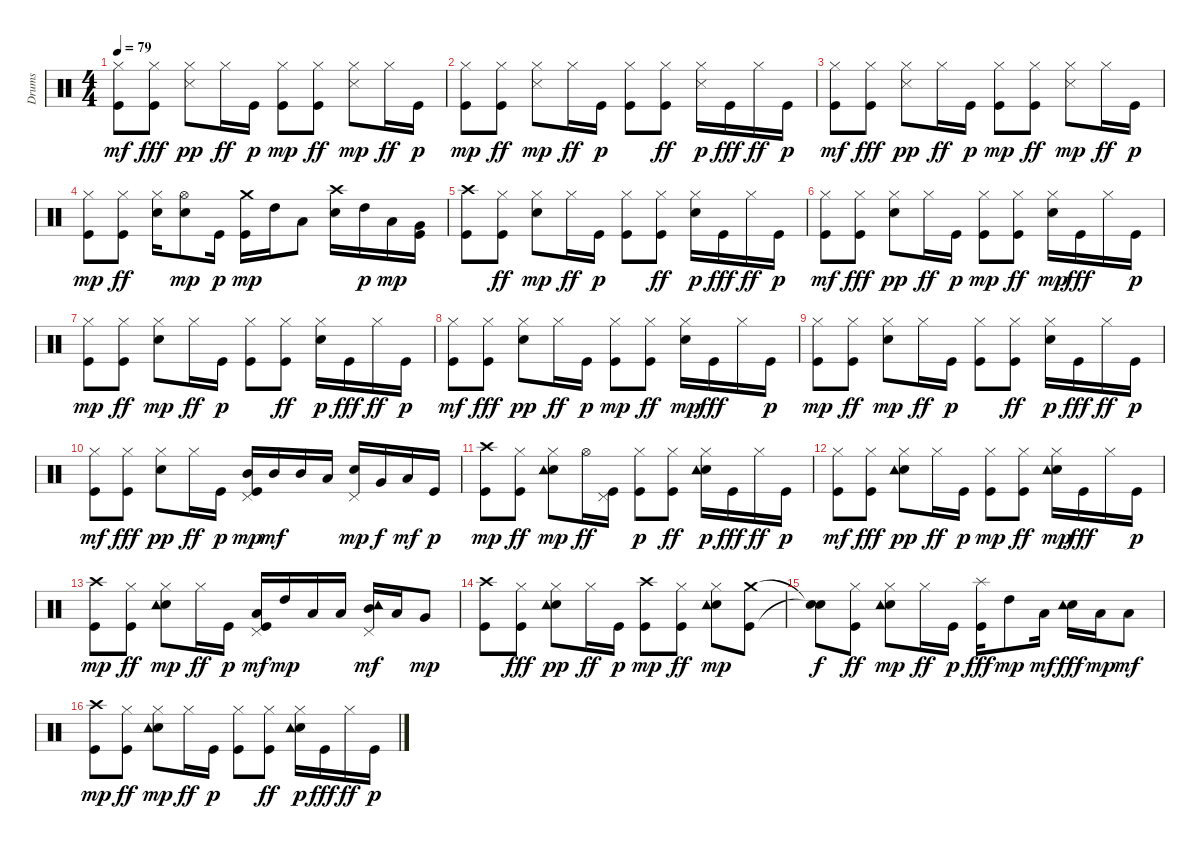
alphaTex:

\track ("Drums" "Drums") {instrument percussion}
\staff {score}
\articulation defaults
\ts (4 4)
\tempo 79
\clef neutral
\ks c
("Kick (hit)" "Hi-Hat (closed)").8{dy mf} ("Kick (hit)" "Hi-Hat (closed)").8{dy fff} ("Snare (side stick) 3" "Hi-Hat (closed)").8{dy pp} "Hi-Hat (closed)".16{dy ff} "Kick (hit)".16{dy p} ("Kick (hit)" "Hi-Hat (closed)").8{dy mp} ("Kick (hit)" "Hi-Hat (closed)").8{dy ff} ("Snare (side stick) 3" "Hi-Hat (closed)").8{dy mp} "Hi-Hat (closed)".16{dy ff} "Kick (hit)".16{dy p} |
("Kick (hit)" "Hi-Hat (closed)").8{dy mp} ("Kick (hit)" "Hi-Hat (closed)").8{dy ff} ("Snare (side stick) 3" "Hi-Hat (closed)").8{dy mp} "Hi-Hat (closed)".16{dy ff} "Kick (hit)".16{dy p} ("Kick (hit)" "Hi-Hat (closed)").8 ("Kick (hit)" "Hi-Hat (closed)").8{dy ff} ("Snare (side stick) 3" "Hi-Hat (closed)").16{dy p} "Kick (hit)".16{dy fff} "Hi-Hat (closed)".16{dy ff} "Kick (hit)".16{dy p} |
("Kick (hit)" "Hi-Hat (closed)").8{dy mf} ("Kick (hit)" "Hi-Hat (closed)").8{dy fff} ("Snare (side stick) 3" "Hi-Hat (closed)").8{dy pp} "Hi-Hat (closed)".16{dy ff} "Kick (hit)".16{dy p} ("Kick (hit)" "Hi-Hat (closed)").8{dy mp} ("Kick (hit)" "Hi-Hat (closed)").8{dy ff} ("Snare (side stick) 3" "Hi-Hat (closed)").8{dy mp} "Hi-Hat (closed)".16{dy ff} "Kick (hit)".16{dy p} |
("Kick (hit)" "Hi-Hat (closed)").8{dy mp} ("Kick (hit)" "Hi-Hat (closed)").8{dy ff} ("Electric Snare (hit)" "Hi-Hat (closed)").16 ("Electric Snare (hit)" "Hi-Hat (open)").8{dy mp} "Kick (hit)".16{dy p} ("Kick (hit)" "Crash medium (hit)").16{dy mp} "High Tom (hit)".16 "Low Tom (hit)".8 ("Electric Snare (hit)" "Crash high (hit)").16 "High Tom (hit)".16{dy p} "Low Tom (hit)".16{dy mp} ("Kick (hit)" "Very Low Tom (hit)").16 |
("Kick (hit)" "Crash high (hit)").8 ("Kick (hit)" "Hi-Hat (closed)").8{dy ff} ("Electric Snare (hit)" "Hi-Hat (closed)").8{dy mp} "Hi-Hat (closed)".16{dy ff} "Kick (hit)".16{dy p} ("Kick (hit)" "Hi-Hat (closed)").8 ("Kick (hit)" "Hi-Hat (closed)").8{dy ff} ("Electric Snare (hit)" "Hi-Hat (closed)").16{dy p} "Kick (hit)".16{dy fff} "Hi-Hat (closed)".16{dy ff} "Kick (hit)".16{dy p} |
("Kick (hit)" "Hi-Hat (closed)").8{dy mf} ("Kick (hit)" "Hi-Hat (closed)").8{dy fff} ("Electric Snare (hit)" "Hi-Hat (closed)").8{dy pp} "Hi-Hat (closed)".16{dy ff} "Kick (hit)".16{dy p} ("Kick (hit)" "Hi-Hat (closed)").8{dy mp} ("Kick (hit)" "Hi-Hat (closed)").8{dy ff} ("Electric Snare (hit)" "Hi-Hat (closed)").16{dy mp} "Kick (hit)".16{dy fff} "Hi-Hat (closed)".16 "Kick (hit)".16{dy p} |
("Kick (hit)" "Hi-Hat (closed)").8{dy mp} ("Kick (hit)" "Hi-Hat (closed)").8{dy ff} ("Electric Snare (hit)" "Hi-Hat (closed)").8{dy mp} "Hi-Hat (closed)".16{dy ff} "Kick (hit)".16{dy p} ("Kick (hit)" "Hi-Hat (closed)").8 ("Kick (hit)" "Hi-Hat (closed)").8{dy ff} ("Electric Snare (hit)" "Hi-Hat (closed)").16{dy p} "Kick (hit)".16{dy fff} "Hi-Hat (closed)".16{dy ff} "Kick (hit)".16{dy p} |
("Kick (hit)" "Hi-Hat (closed)").8{dy mf} ("Kick (hit)" "Hi-Hat (closed)").8{dy fff} ("Electric Snare (hit)" "Hi-Hat (closed)").8{dy pp} "Hi-Hat (closed)".16{dy ff} "Kick (hit)".16{dy p} ("Kick (hit)" "Hi-Hat (closed)").8{dy mp} ("Kick (hit)" "Hi-Hat (closed)").8{dy ff} ("Electric Snare (hit)" "Hi-Hat (closed)").16{dy mp} "Kick (hit)".16{dy fff} "Hi-Hat (closed)".16 "Kick (hit)".16{dy p} |
("Kick (hit)" "Hi-Hat (closed)").8{dy mp} ("Kick (hit)" "Hi-Hat (closed)").8{dy ff} ("Electric Snare (hit)" "Hi-Hat (closed)").8{dy mp} "Hi-Hat (closed)".16{dy ff} "Kick (hit)".16{dy p} ("Kick (hit)" "Hi-Hat (closed)").8 ("Kick (hit)" "Hi-Hat (closed)").8{dy ff} ("Electric Snare (hit)" "Hi-Hat (closed)").16{dy p} "Kick (hit)".16{dy fff} "Hi-Hat (closed)".16{dy ff} "Kick (hit)".16{dy p} |
("Kick (hit)" "Hi-Hat (closed)").8{dy mf} ("Kick (hit)" "Hi-Hat (closed)").8{dy fff} ("Electric Snare (hit)" "Hi-Hat (closed)").8{dy pp} "Hi-Hat (closed)".16{dy ff} "Kick (hit)".16{dy p} ("Kick (hit)" "Pedal Hi-Hat (hit)" "Mid Tom (hit)").16{dy mp} "Mid Tom (hit)".16{dy mf} "Mid Tom (hit)".16 "Low Tom (hit)".16 ("Electric Snare (hit)" "Pedal Hi-Hat (hit)").16{dy mp} "Very Low Tom (hit)".16{dy f} "Low Floor Tom (hit)".16{dy mf} "Kick (hit)".16{dy p} |
("Kick (hit)" "Crash high (hit)").8{dy mp} ("Kick (hit)" "Hi-Hat (closed)").8{dy ff} ("Electric Snare (hit)" "Hi-Hat (closed)" "Tambourine (hit)").8{dy mp} "Hi-Hat (open)".16{dy ff} ("Kick (hit)" "Pedal Hi-Hat (hit)").16 ("Kick (hit)" "Hi-Hat (closed)").8{dy p} ("Kick (hit)" "Hi-Hat (closed)").8{dy ff} ("Electric Snare (hit)" "Hi-Hat (closed)" "Tambourine (hit)").16{dy p} "Kick (hit)".16{dy fff} "Hi-Hat (closed)".16{dy ff} "Kick (hit)".16{dy p} |
("Kick (hit)" "Hi-Hat (closed)").8{dy mf} ("Kick (hit)" "Hi-Hat (closed)").8{dy fff} ("Electric Snare (hit)" "Hi-Hat (closed)" "Tambourine (hit)").8{dy pp} "Hi-Hat (closed)".16{dy ff} "Kick (hit)".16{dy p} ("Kick (hit)" "Hi-Hat (closed)").8{dy mp} ("Kick (hit)" "Hi-Hat (closed)").8{dy ff} ("Electric Snare (hit)" "Hi-Hat (closed)" "Tambourine (hit)").16{dy mp} "Kick (hit)".16{dy fff} "Hi-Hat (closed)".16 "Kick (hit)".16{dy p} |
("Kick (hit)" "Crash high (hit)").8{dy mp} ("Kick (hit)" "Hi-Hat (closed)").8{dy ff} ("Electric Snare (hit)" "Hi-Hat (closed)" "Tambourine (hit)").8{dy mp} "Hi-Hat (closed)".16{dy ff} "Kick (hit)".16{dy p} ("Kick (hit)" "Pedal Hi-Hat (hit)" "Low Tom (hit)").16{dy mf} "High Tom (hit)".16{dy mp} "Low Tom (hit)".16 "Low Tom (hit)".16 ("Pedal Hi-Hat (hit)" "Mid Tom (hit)" "Tambourine (hit)").16{dy mf} "Low Tom (hit)".16 "Very Low Tom (hit)".8{dy mp} |
("Kick (hit)" "Crash high (hit)").8 ("Kick (hit)" "Hi-Hat (closed)").8{dy fff} ("Electric Snare (hit)" "Hi-Hat (closed)" "Tambourine (hit)").8{dy pp} "Hi-Hat (closed)".16{dy ff} "Kick (hit)".16{dy p} ("Kick (hit)" "Crash high (hit)").8{dy mp} ("Kick (hit)" "Hi-Hat (closed)").8{dy ff} ("Electric Snare (hit)" "Hi-Hat (closed)" "Tambourine (hit)").8{dy mp} ("Kick (hit)" "Crash medium (hit)").8 |
("Snare (hit)"{t} "Snare (hit)"{t}).8{dy f} ("Kick (hit)" "Hi-Hat (closed)").8{dy ff} ("Electric Snare (hit)" "Hi-Hat (closed)" "Tambourine (hit)").8{dy mp} "Hi-Hat (closed)".16{dy ff} "Kick (hit)".16{dy p} ("Kick (hit)" "Splash (hit)").16{dy fff} "High Tom (hit)".8{dy mp} "Low Tom (hit)".16{dy mf} ("Electric Snare (hit)" "Tambourine (hit)").16{dy fff} "Low Tom (hit)".16{dy mp} "Low Tom (hit)".8{dy mf} |
("Kick (hit)" "Crash high (hit)").8{dy mp} ("Kick (hit)" "Hi-Hat (closed)").8{dy ff} ("Electric Snare (hit)" "Hi-Hat (closed)" "Tambourine (hit)").8{dy mp} "Hi-Hat (closed)".16{dy ff} "Kick (hit)".16{dy p} ("Kick (hit)" "Hi-Hat (closed)").8 ("Kick (hit)" "Hi-Hat (closed)").8{dy ff} ("Electric Snare (hit)" "Hi-Hat (closed)" "Tambourine (hit)").16{dy p} "Kick (hit)".16{dy fff} "Hi-Hat (closed)".16{dy ff} "Kick (hit)".16{dy p}
